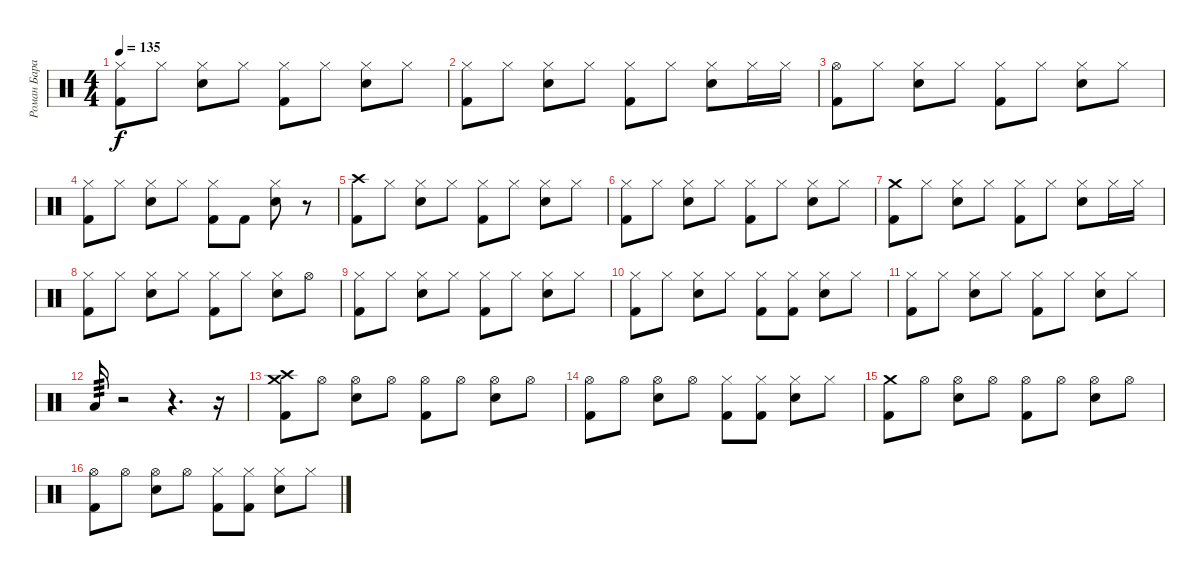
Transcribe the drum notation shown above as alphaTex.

\track ("Роман Баранюк" "Роман Бара") {instrument percussion}
\staff {score}
\articulation defaults
\ts (4 4)
\tempo 135
\clef neutral
\ks c
("Hi-Hat (closed)" "Kick (hit) 2").8{dy f} "Hi-Hat (closed)".8 ("Hi-Hat (closed)" "Snare (hit) 2").8 "Hi-Hat (closed)".8 ("Hi-Hat (closed)" "Kick (hit) 2").8 "Hi-Hat (closed)".8 ("Hi-Hat (closed)" "Snare (hit) 2").8 "Hi-Hat (closed)".8 |
("Hi-Hat (closed)" "Kick (hit) 2").8 "Hi-Hat (closed)".8 ("Hi-Hat (closed)" "Snare (hit) 2").8 "Hi-Hat (closed)".8 ("Hi-Hat (closed)" "Kick (hit) 2").8 "Hi-Hat (closed)".8 ("Hi-Hat (closed)" "Snare (hit) 2").8 "Hi-Hat (closed)".16 "Hi-Hat (closed)".16 |
("Hi-Hat (open)" "Kick (hit) 2").8 "Hi-Hat (closed)".8 ("Hi-Hat (closed)" "Snare (hit) 2").8 "Hi-Hat (closed)".8 ("Hi-Hat (closed)" "Kick (hit) 2").8 "Hi-Hat (closed)".8 ("Hi-Hat (closed)" "Snare (hit) 2").8 "Hi-Hat (closed)".8 |
("Hi-Hat (closed)" "Kick (hit) 2").8 "Hi-Hat (closed)".8 ("Hi-Hat (closed)" "Snare (hit) 2").8 "Hi-Hat (closed)".8 ("Hi-Hat (closed)" "Kick (hit) 2").8 "Kick (hit) 2".8 ("Hi-Hat (closed)" "Snare (hit) 2").8 r.8 |
("Crash high (hit)" "Kick (hit) 2").8 "Hi-Hat (closed)".8 ("Hi-Hat (closed)" "Snare (hit) 2").8 "Hi-Hat (closed)".8 ("Hi-Hat (closed)" "Kick (hit) 2").8 "Hi-Hat (closed)".8 ("Hi-Hat (closed)" "Snare (hit) 2").8 "Hi-Hat (closed)".8 |
("Hi-Hat (closed)" "Kick (hit) 2").8 "Hi-Hat (closed)".8 ("Hi-Hat (closed)" "Snare (hit) 2").8 "Hi-Hat (closed)".8 ("Hi-Hat (closed)" "Kick (hit) 2").8 "Hi-Hat (closed)".8 ("Hi-Hat (closed)" "Snare (hit) 2").8 "Hi-Hat (closed)".8 |
("Crash medium (hit)" "Kick (hit) 2").8 "Hi-Hat (closed)".8 ("Hi-Hat (closed)" "Snare (hit) 2").8 "Hi-Hat (closed)".8 ("Hi-Hat (closed)" "Kick (hit) 2").8 "Hi-Hat (closed)".8 ("Hi-Hat (closed)" "Snare (hit) 2").8 "Hi-Hat (closed)".16 "Hi-Hat (closed)".16 |
("Hi-Hat (closed)" "Kick (hit) 2").8 "Hi-Hat (closed)".8 ("Hi-Hat (closed)" "Snare (hit) 2").8 "Hi-Hat (closed)".8 ("Hi-Hat (closed)" "Kick (hit) 2").8 "Hi-Hat (closed)".8 ("Hi-Hat (closed)" "Snare (hit) 2").8 "Hi-Hat (open)".8 |
("Hi-Hat (closed)" "Kick (hit) 2").8 "Hi-Hat (closed)".8 ("Hi-Hat (closed)" "Snare (hit) 2").8 "Hi-Hat (closed)".8 ("Hi-Hat (closed)" "Kick (hit) 2").8 "Hi-Hat (closed)".8 ("Hi-Hat (closed)" "Snare (hit) 2").8 "Hi-Hat (closed)".8 |
("Hi-Hat (closed)" "Kick (hit) 2").8 "Hi-Hat (closed)".8 ("Hi-Hat (closed)" "Snare (hit) 2").8 "Hi-Hat (closed)".8 ("Hi-Hat (closed)" "Kick (hit) 2").8 ("Hi-Hat (closed)" "Kick (hit) 2").8 ("Hi-Hat (closed)" "Snare (hit) 2").8 "Hi-Hat (closed)".8 |
("Hi-Hat (closed)" "Kick (hit) 2").8 "Hi-Hat (closed)".8 ("Hi-Hat (closed)" "Snare (hit) 2").8 "Hi-Hat (closed)".8 ("Hi-Hat (closed)" "Kick (hit) 2").8 "Hi-Hat (closed)".8 ("Hi-Hat (closed)" "Snare (hit) 2").8 "Hi-Hat (closed)".8 |
"Low Tom (hit)".16{tp 3} r.2 r.4{d} r.16 |
("Crash high (hit)" "Crash medium (hit)" "Kick (hit) 2").8 "Hi-Hat (open)".8 ("Hi-Hat (open)" "Snare (hit) 2").8 "Hi-Hat (open)".8 ("Hi-Hat (open)" "Kick (hit) 2").8 "Hi-Hat (open)".8 ("Hi-Hat (open)" "Snare (hit) 2").8 "Hi-Hat (open)".8 |
("Hi-Hat (open)" "Kick (hit) 2").8 "Hi-Hat (open)".8 ("Hi-Hat (open)" "Snare (hit) 2").8 "Hi-Hat (open)".8 ("Hi-Hat (closed)" "Kick (hit) 2").8 ("Hi-Hat (closed)" "Kick (hit) 2").8 ("Hi-Hat (closed)" "Snare (hit) 2").8 "Hi-Hat (closed)".8 |
("Crash medium (hit)" "Kick (hit) 2").8 "Hi-Hat (open)".8 ("Hi-Hat (open)" "Snare (hit) 2").8 "Hi-Hat (open)".8 ("Hi-Hat (open)" "Kick (hit) 2").8 "Hi-Hat (open)".8 ("Hi-Hat (open)" "Snare (hit) 2").8 "Hi-Hat (open)".8 |
("Hi-Hat (open)" "Kick (hit) 2").8 "Hi-Hat (open)".8 ("Hi-Hat (open)" "Snare (hit) 2").8 "Hi-Hat (open)".8 ("Hi-Hat (closed)" "Kick (hit) 2").8 ("Hi-Hat (closed)" "Kick (hit) 2").8 ("Hi-Hat (closed)" "Snare (hit) 2").8 "Hi-Hat (closed)".8
